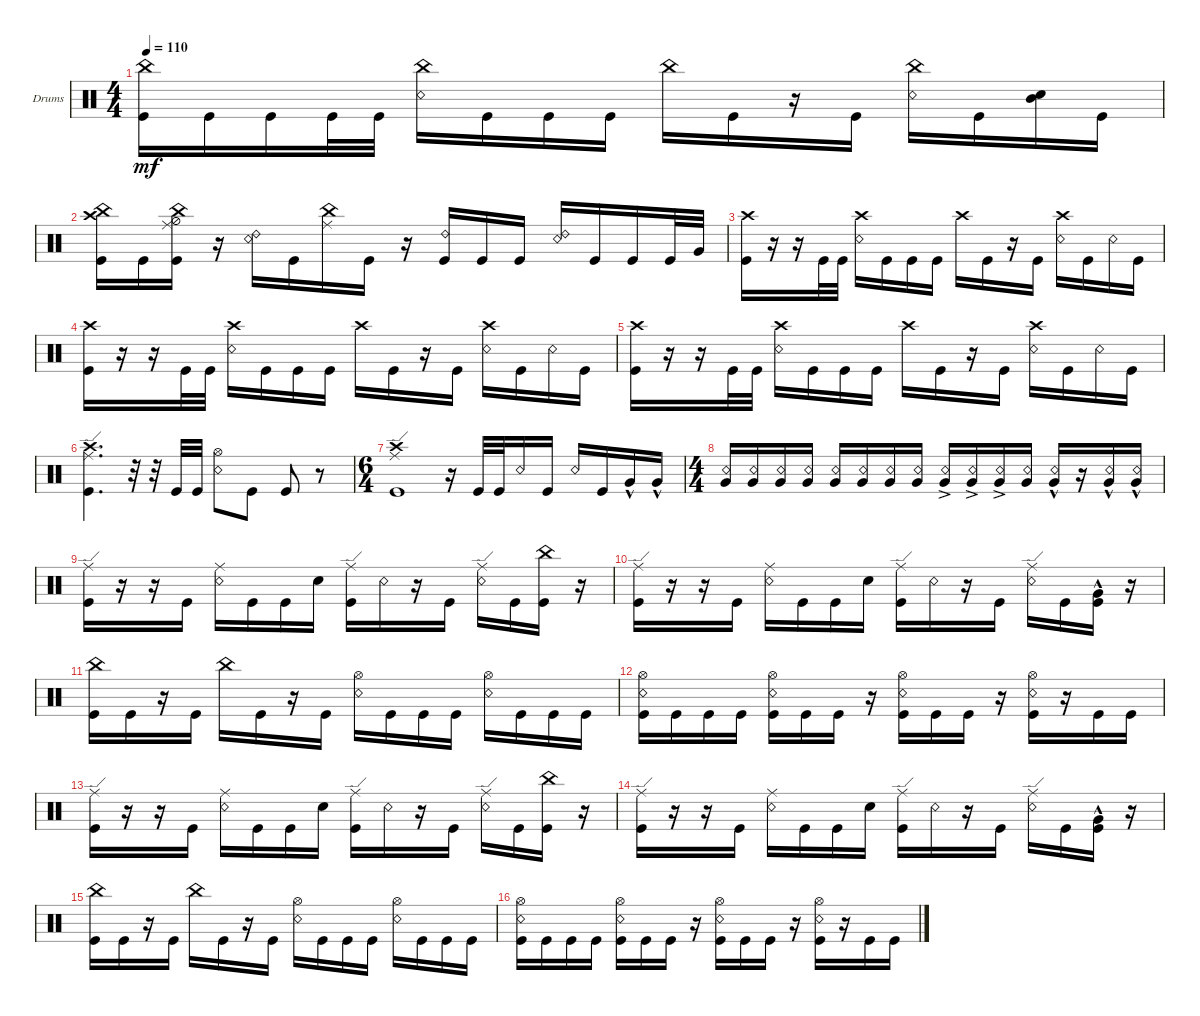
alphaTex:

\defaultSystemsLayout 4
\bracketExtendMode groupsimilarinstruments
\firstSystemTrackNameOrientation horizontal
\otherSystemsTrackNameOrientation horizontal
\track ("Drumkit" "Drums") {instrument percussion}
\staff {score}
\articulation defaults
\ts (4 4)
\tempo 110
\clef neutral
\ks c
("China (hit)" "Kick (hit)").16{dy mf} "Kick (hit)".16 "Kick (hit)".16 "Kick (hit)".32 "Kick (hit)".32 ("Snare (rim shot)" "China (hit)").16 "Kick (hit)".16 "Kick (hit)".16 "Kick (hit)".16 "China (hit)".16 "Kick (hit)".16 r.16 "Kick (hit)".16 ("Snare (rim shot)" "China (hit)").16 "Kick (hit)".16 ("Mid Tom (hit)" "Snare (hit) 2").16 "Kick (hit)".16 |
("Crash high (hit)" "China (hit)" "Kick (hit)").16 "Kick (hit)".16 ("Kick (hit)" "Ride (middle)" "Hi-Hat (half)" "China (hit)").16 r.16 ("Snare (rim shot)" "Ride (bell) 2").16 "Kick (hit)".16 ("Ride (middle)" "China (hit)").16 "Kick (hit)".16 r.16 ("Kick (hit)" "Ride (bell) 2").16 "Kick (hit)".16 "Kick (hit)".16 ("Snare (rim shot)" "Ride (bell) 2").16 "Kick (hit)".16 "Kick (hit)".16 "Kick (hit)".32 "Very Low Tom (hit)".32 |
("Kick (hit)" "Crash high (hit)").16 r.16 r.16 "Kick (hit)".32 "Kick (hit)".32 ("Snare (rim shot)" "Crash high (hit)").16 "Kick (hit)".16 "Kick (hit)".16 "Kick (hit)".16 "Crash high (hit)".16 "Kick (hit)".16 r.16 "Kick (hit)".16 ("Snare (rim shot)" "Crash high (hit)").16 "Kick (hit)".16 "Snare (rim shot)".16 "Kick (hit)".16 |
\scale
0.426771 ("Kick (hit)" "Crash high (hit)").16 r.16 r.16 "Kick (hit)".32 "Kick (hit)".32 ("Snare (rim shot)" "Crash high (hit)").16 "Kick (hit)".16 "Kick (hit)".16 "Kick (hit)".16 "Crash high (hit)".16 "Kick (hit)".16 r.16 "Kick (hit)".16 ("Snare (rim shot)" "Crash high (hit)").16 "Kick (hit)".16 "Snare (rim shot)".16 "Kick (hit)".16 |
\scale
0.417483 ("Kick (hit)" "Crash high (hit)").16 r.16 r.16 "Kick (hit)".32 "Kick (hit)".32 ("Snare (rim shot)" "Crash high (hit)").16 "Kick (hit)".16 "Kick (hit)".16 "Kick (hit)".16 "Crash high (hit)".16 "Kick (hit)".16 r.16 "Kick (hit)".16 ("Snare (rim shot)" "Crash high (hit)").16 "Kick (hit)".16 "Snare (rim shot)".16 "Kick (hit)".16 |
\scale
0.156679 ("Crash high (hit)" "Kick (hit)" "Ride (edge)").4{d} r.32 r.32 "Kick (hit)".32 "Kick (hit)".32 ("Snare (rim shot)" "Hi-Hat (open)").8 "Kick (hit)".8 "Kick (hit)".8 r.8 |
\ts (6 4)
("Crash high (hit)" "Kick (hit)" "Ride (edge)").1 r.16 "Kick (hit)".32 "Kick (hit)".32 "Snare (rim shot)".16 "Kick (hit)".16 "Snare (rim shot)".16 "Kick (hit)".16 "Very Low Tom (hit)"{hac}.16 "Very Low Tom (hit)"{hac}.16 |
\ts (4 4)
("Snare (rim shot)" "Very Low Tom (hit)").16 ("Very Low Tom (hit)" "Snare (rim shot)").16 ("Very Low Tom (hit)" "Snare (rim shot)").16 ("Very Low Tom (hit)" "Snare (rim shot)").16 ("Very Low Tom (hit)" "Snare (rim shot)").16 ("Very Low Tom (hit)" "Snare (rim shot)").16 ("Snare (rim shot)" "Very Low Tom (hit)").16 ("Snare (rim shot)" "Very Low Tom (hit)").16 ("Snare (rim shot)"{ac} "Very Low Tom (hit)"{ac}).16 ("Snare (rim shot)"{ac} "Very Low Tom (hit)"{ac}).16 ("Snare (rim shot)"{ac} "Very Low Tom (hit)"{ac}).16 ("Snare (rim shot)" "Very Low Tom (hit)").16 ("Snare (rim shot)"{hac} "Very Low Tom (hit)"{hac}).16 r.16 ("Snare (rim shot)"{hac} "Very Low Tom (hit)"{hac}).16 ("Snare (rim shot)"{hac} "Very Low Tom (hit)"{hac}).16 |
("Ride (edge)" "Kick (hit)").16 r.16 r.16 "Kick (hit)".16 ("Snare (rim shot)" "Ride (middle)").16 "Kick (hit)".16 "Kick (hit)".16 "Snare (hit) 2".16 ("Kick (hit)" "Ride (edge)").16 "Snare (rim shot)".16 r.16 "Kick (hit)".16 ("Snare (rim shot)" "Ride (edge)").16 "Kick (hit)".16 ("Kick (hit)" "China (hit)").16 r.16 |
("Ride (edge)" "Kick (hit)").16 r.16 r.16 "Kick (hit)".16 ("Snare (rim shot)" "Ride (middle)").16 "Kick (hit)".16 "Kick (hit)".16 "Snare (hit) 2".16 ("Kick (hit)" "Ride (edge)").16 "Snare (rim shot)".16 r.16 "Kick (hit)".16 ("Snare (rim shot)" "Ride (edge)").16 "Kick (hit)".16 ("Very Low Tom (hit)"{hac} "Kick (hit)").16 r.16 |
("Kick (hit)" "China (hit)").16 "Kick (hit)".16 r.16 "Kick (hit)".16 "China (hit)".16 "Kick (hit)".16 r.16 "Kick (hit)".16 ("Snare (rim shot)" "Hi-Hat (open)").16 "Kick (hit)".16 "Kick (hit)".16 "Kick (hit)".16 ("Snare (rim shot)" "Hi-Hat (open)").16 "Kick (hit)".16 "Kick (hit)".16 "Kick (hit)".16 |
("Kick (hit)" "Snare (rim shot)" "Hi-Hat (open)").16 "Kick (hit)".16 "Kick (hit)".16 "Kick (hit)".16 ("Kick (hit)" "Snare (rim shot)" "Hi-Hat (open)").16 "Kick (hit)".16 "Kick (hit)".16 r.16 ("Kick (hit)" "Hi-Hat (open)" "Snare (rim shot)").16 "Kick (hit)".16 "Kick (hit)".16 r.16 ("Kick (hit)" "Snare (rim shot)" "Hi-Hat (open)").16 r.16 "Kick (hit)".16 "Kick (hit)".16 |
("Ride (edge)" "Kick (hit)").16 r.16 r.16 "Kick (hit)".16 ("Snare (rim shot)" "Ride (middle)").16 "Kick (hit)".16 "Kick (hit)".16 "Snare (hit) 2".16 ("Kick (hit)" "Ride (edge)").16 "Snare (rim shot)".16 r.16 "Kick (hit)".16 ("Snare (rim shot)" "Ride (edge)").16 "Kick (hit)".16 ("Kick (hit)" "China (hit)").16 r.16 |
("Ride (edge)" "Kick (hit)").16 r.16 r.16 "Kick (hit)".16 ("Snare (rim shot)" "Ride (middle)").16 "Kick (hit)".16 "Kick (hit)".16 "Snare (hit) 2".16 ("Kick (hit)" "Ride (edge)").16 "Snare (rim shot)".16 r.16 "Kick (hit)".16 ("Snare (rim shot)" "Ride (edge)").16 "Kick (hit)".16 ("Very Low Tom (hit)"{hac} "Kick (hit)").16 r.16 |
("Kick (hit)" "China (hit)").16 "Kick (hit)".16 r.16 "Kick (hit)".16 "China (hit)".16 "Kick (hit)".16 r.16 "Kick (hit)".16 ("Snare (rim shot)" "Hi-Hat (open)").16 "Kick (hit)".16 "Kick (hit)".16 "Kick (hit)".16 ("Snare (rim shot)" "Hi-Hat (open)").16 "Kick (hit)".16 "Kick (hit)".16 "Kick (hit)".16 |
\scale
0.51815 ("Kick (hit)" "Snare (rim shot)" "Hi-Hat (open)").16 "Kick (hit)".16 "Kick (hit)".16 "Kick (hit)".16 ("Kick (hit)" "Snare (rim shot)" "Hi-Hat (open)").16 "Kick (hit)".16 "Kick (hit)".16 r.16 ("Kick (hit)" "Hi-Hat (open)" "Snare (rim shot)").16 "Kick (hit)".16 "Kick (hit)".16 r.16 ("Kick (hit)" "Snare (rim shot)" "Hi-Hat (open)").16 r.16 "Kick (hit)".16 "Kick (hit)".16
